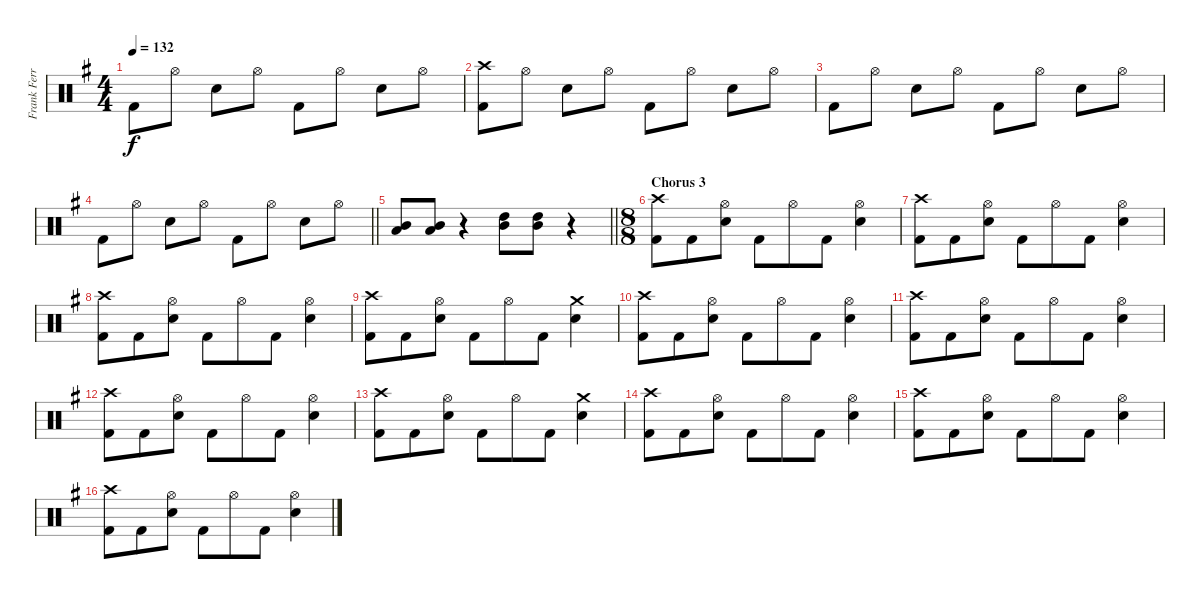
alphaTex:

\track ("Frank Ferrer" "Frank Ferr") {instrument percussion}
\staff {score}
\articulation defaults
\ts (4 4)
\tempo 132
\clef neutral
\ks g "Kick (hit) 2".8{dy f} "Hi-Hat (open)".8 "Electric Snare (hit)".8 "Hi-Hat (open)".8 "Kick (hit) 2".8 "Hi-Hat (open)".8 "Electric Snare (hit)".8 "Hi-Hat (open)".8
|
("Crash high (hit)" "Kick (hit) 2").8 "Hi-Hat (open)".8 "Electric Snare (hit)".8 "Hi-Hat (open)".8 "Kick (hit) 2".8 "Hi-Hat (open)".8 "Electric Snare (hit)".8 "Hi-Hat (open)".8 |
"Kick (hit) 2".8 "Hi-Hat (open)".8 "Electric Snare (hit)".8 "Hi-Hat (open)".8 "Kick (hit) 2".8 "Hi-Hat (open)".8 "Electric Snare (hit)".8 "Hi-Hat (open)".8 |
\barLineRight lightlight "Kick (hit) 2".8 "Hi-Hat (open)".8 "Electric Snare (hit)".8 "Hi-Hat (open)".8 "Kick (hit) 2".8 "Hi-Hat (open)".8 "Electric Snare (hit)".8 "Hi-Hat (open)".8
|
\section ("" "")
\barLineRight lightlight
("Low Tom (hit)" "Mid Tom (hit)").8 ("Low Tom (hit)" "Mid Tom (hit)").8 r.4 ("High Tom (hit)" "Mid Tom (hit)").8 ("High Tom (hit)" "Mid Tom (hit)").8 r.4 |
\ts (8 8)
\section ("" "Chorus 3")
("Crash high (hit)" "Kick (hit) 2").8 "Kick (hit) 2".8 ("Hi-Hat (open)" "Electric Snare (hit)").8 "Kick (hit) 2".8 "Hi-Hat (open)".8 "Kick (hit) 2".8 ("Hi-Hat (open)" "Electric Snare (hit)").4 |
("Crash high (hit)" "Kick (hit) 2").8 "Kick (hit) 2".8 ("Hi-Hat (open)" "Electric Snare (hit)").8 "Kick (hit) 2".8 "Hi-Hat (open)".8 "Kick (hit) 2".8 ("Hi-Hat (open)" "Electric Snare (hit)").4 |
("Crash high (hit)" "Kick (hit) 2").8 "Kick (hit) 2".8 ("Hi-Hat (open)" "Electric Snare (hit)").8 "Kick (hit) 2".8 "Hi-Hat (open)".8 "Kick (hit) 2".8 ("Hi-Hat (open)" "Electric Snare (hit)").4 |
("Crash high (hit)" "Kick (hit) 2").8 "Kick (hit) 2".8 ("Hi-Hat (open)" "Electric Snare (hit)").8 "Kick (hit) 2".8 "Hi-Hat (open)".8 "Kick (hit) 2".8 ("Crash medium (hit)" "Electric Snare (hit)").4 |
("Crash high (hit)" "Kick (hit) 2").8 "Kick (hit) 2".8 ("Hi-Hat (open)" "Electric Snare (hit)").8 "Kick (hit) 2".8 "Hi-Hat (open)".8 "Kick (hit) 2".8 ("Hi-Hat (open)" "Electric Snare (hit)").4 |
("Crash high (hit)" "Kick (hit) 2").8 "Kick (hit) 2".8 ("Hi-Hat (open)" "Electric Snare (hit)").8 "Kick (hit) 2".8 "Hi-Hat (open)".8 "Kick (hit) 2".8 ("Hi-Hat (open)" "Electric Snare (hit)").4 |
("Crash high (hit)" "Kick (hit) 2").8 "Kick (hit) 2".8 ("Hi-Hat (open)" "Electric Snare (hit)").8 "Kick (hit) 2".8 "Hi-Hat (open)".8 "Kick (hit) 2".8 ("Hi-Hat (open)" "Electric Snare (hit)").4 |
("Crash high (hit)" "Kick (hit) 2").8 "Kick (hit) 2".8 ("Hi-Hat (open)" "Electric Snare (hit)").8 "Kick (hit) 2".8 "Hi-Hat (open)".8 "Kick (hit) 2".8 ("Crash medium (hit)" "Electric Snare (hit)").4 |
("Crash high (hit)" "Kick (hit) 2").8 "Kick (hit) 2".8 ("Hi-Hat (open)" "Electric Snare (hit)").8 "Kick (hit) 2".8 "Hi-Hat (open)".8 "Kick (hit) 2".8 ("Hi-Hat (open)" "Electric Snare (hit)").4 |
("Crash high (hit)" "Kick (hit) 2").8 "Kick (hit) 2".8 ("Hi-Hat (open)" "Electric Snare (hit)").8 "Kick (hit) 2".8 "Hi-Hat (open)".8 "Kick (hit) 2".8 ("Hi-Hat (open)" "Electric Snare (hit)").4 |
("Crash high (hit)" "Kick (hit) 2").8 "Kick (hit) 2".8 ("Hi-Hat (open)" "Electric Snare (hit)").8 "Kick (hit) 2".8 "Hi-Hat (open)".8 "Kick (hit) 2".8 ("Hi-Hat (open)" "Electric Snare (hit)").4
